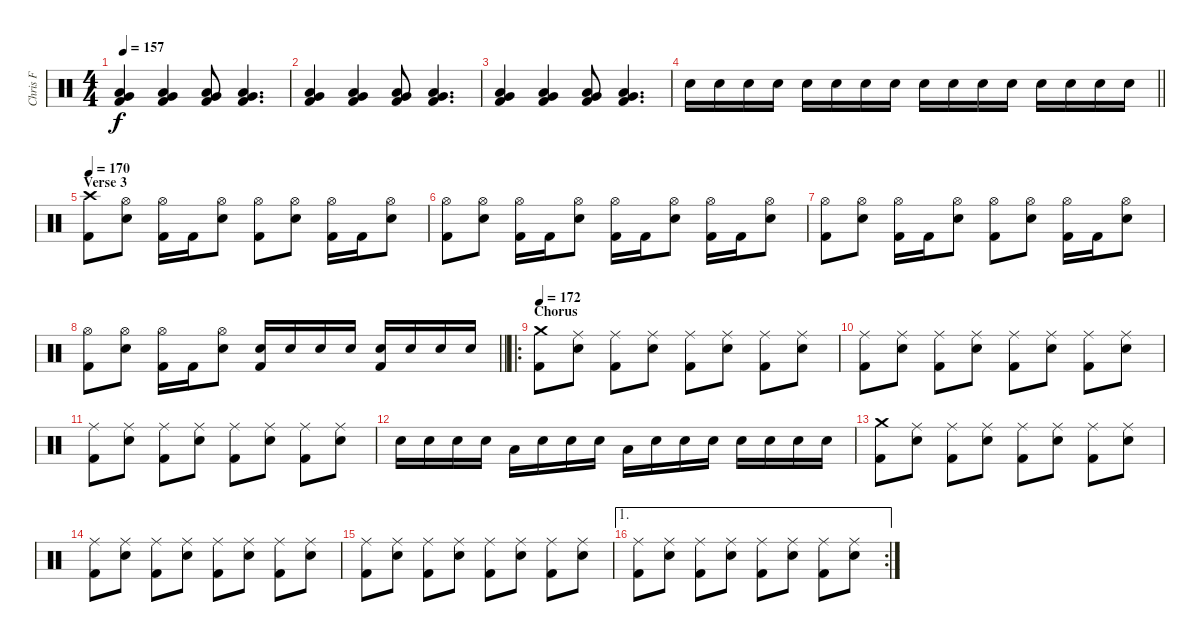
\track ("Chris F" "Chris F") {instrument percussion}
\staff {score}
\articulation defaults
\ts (4 4)
\tempo 157
\clef neutral
\ks c
("Very Low Tom (hit)" "Low Floor Tom (hit)" "Kick (hit) 2").4{dy f} ("Very Low Tom (hit)" "Low Floor Tom (hit)" "Kick (hit) 2").4 ("Very Low Tom (hit)" "Low Floor Tom (hit)" "Kick (hit) 2").8 ("Very Low Tom (hit)" "Low Floor Tom (hit)" "Kick (hit) 2").4{d} |
("Very Low Tom (hit)" "Low Floor Tom (hit)" "Kick (hit) 2").4 ("Very Low Tom (hit)" "Low Floor Tom (hit)" "Kick (hit) 2").4 ("Very Low Tom (hit)" "Low Floor Tom (hit)" "Kick (hit) 2").8 ("Very Low Tom (hit)" "Low Floor Tom (hit)" "Kick (hit) 2").4{d} |
("Very Low Tom (hit)" "Low Floor Tom (hit)" "Kick (hit) 2").4 ("Very Low Tom (hit)" "Low Floor Tom (hit)" "Kick (hit) 2").4 ("Very Low Tom (hit)" "Low Floor Tom (hit)" "Kick (hit) 2").8 ("Very Low Tom (hit)" "Low Floor Tom (hit)" "Kick (hit) 2").4{d} |
\barLineRight lightlight "Electric Snare (hit)".16 "Electric Snare (hit)".16 "Electric Snare (hit)".16 "Electric Snare (hit)".16 "Electric Snare (hit)".16 "Electric Snare (hit)".16 "Electric Snare (hit)".16 "Electric Snare (hit)".16 "Electric Snare (hit)".16 "Electric Snare (hit)".16 "Electric Snare (hit)".16 "Electric Snare (hit)".16 "Electric Snare (hit)".16 "Electric Snare (hit)".16 "Electric Snare (hit)".16 "Electric Snare (hit)".16
|
\section ("" "Verse 3")
\tempo 170
("Crash high (hit)" "Kick (hit) 2").8 ("Hi-Hat (open)" "Electric Snare (hit)").8 ("Hi-Hat (open)" "Kick (hit) 2").16 "Kick (hit) 2".16 ("Hi-Hat (open)" "Electric Snare (hit)").8 ("Hi-Hat (open)" "Kick (hit) 2").8 ("Hi-Hat (open)" "Electric Snare (hit)").8 ("Hi-Hat (open)" "Kick (hit) 2").16 "Kick (hit) 2".16 ("Hi-Hat (open)" "Electric Snare (hit)").8 |
("Hi-Hat (open)" "Kick (hit) 2").8 ("Hi-Hat (open)" "Electric Snare (hit)").8 ("Hi-Hat (open)" "Kick (hit) 2").16 "Kick (hit) 2".16 ("Hi-Hat (open)" "Electric Snare (hit)").8 ("Hi-Hat (open)" "Kick (hit) 2").16 "Kick (hit) 2".16 ("Hi-Hat (open)" "Electric Snare (hit)").8 ("Hi-Hat (open)" "Kick (hit) 2").16 "Kick (hit) 2".16 ("Hi-Hat (open)" "Electric Snare (hit)").8 |
("Hi-Hat (open)" "Kick (hit) 2").8 ("Hi-Hat (open)" "Electric Snare (hit)").8 ("Hi-Hat (open)" "Kick (hit) 2").16 "Kick (hit) 2".16 ("Hi-Hat (open)" "Electric Snare (hit)").8 ("Hi-Hat (open)" "Kick (hit) 2").8 ("Hi-Hat (open)" "Electric Snare (hit)").8 ("Hi-Hat (open)" "Kick (hit) 2").16 "Kick (hit) 2".16 ("Hi-Hat (open)" "Electric Snare (hit)").8 |
\barLineRight lightlight
("Hi-Hat (open)" "Kick (hit) 2").8 ("Hi-Hat (open)" "Electric Snare (hit)").8 ("Hi-Hat (open)" "Kick (hit) 2").16 "Kick (hit) 2".16 ("Hi-Hat (open)" "Electric Snare (hit)").8 ("Electric Snare (hit)" "Kick (hit) 2").16 "Electric Snare (hit)".16 "Electric Snare (hit)".16 "Electric Snare (hit)".16 ("Electric Snare (hit)" "Kick (hit) 2").16 "Electric Snare (hit)".16 "Electric Snare (hit)".16 "Electric Snare (hit)".16 |
\ro
\section ("" "Chorus")
\tempo 172
("Crash medium (hit)" "Kick (hit) 2").8 ("Ride (middle)" "Electric Snare (hit)").8 ("Ride (middle)" "Kick (hit) 2").8 ("Ride (middle)" "Electric Snare (hit)").8 ("Ride (middle)" "Kick (hit) 2").8 ("Ride (middle)" "Electric Snare (hit)").8 ("Ride (middle)" "Kick (hit) 2").8 ("Ride (middle)" "Electric Snare (hit)").8 |
("Ride (middle)" "Kick (hit) 2").8 ("Ride (middle)" "Electric Snare (hit)").8 ("Ride (middle)" "Kick (hit) 2").8 ("Ride (middle)" "Electric Snare (hit)").8 ("Ride (middle)" "Kick (hit) 2").8 ("Ride (middle)" "Electric Snare (hit)").8 ("Ride (middle)" "Kick (hit) 2").8 ("Ride (middle)" "Electric Snare (hit)").8 |
("Ride (middle)" "Kick (hit) 2").8 ("Ride (middle)" "Electric Snare (hit)").8 ("Ride (middle)" "Kick (hit) 2").8 ("Ride (middle)" "Electric Snare (hit)").8 ("Ride (middle)" "Kick (hit) 2").8 ("Ride (middle)" "Electric Snare (hit)").8 ("Ride (middle)" "Kick (hit) 2").8 ("Ride (middle)" "Electric Snare (hit)").8 |
"Electric Snare (hit)".16 "Electric Snare (hit)".16 "Electric Snare (hit)".16 "Electric Snare (hit)".16 "Low Tom (hit)".16 "Electric Snare (hit)".16 "Electric Snare (hit)".16 "Electric Snare (hit)".16 "Low Tom (hit)".16 "Electric Snare (hit)".16 "Electric Snare (hit)".16 "Electric Snare (hit)".16 "Electric Snare (hit)".16 "Electric Snare (hit)".16 "Electric Snare (hit)".16 "Electric Snare (hit)".16 |
("Crash medium (hit)" "Kick (hit) 2").8 ("Ride (middle)" "Electric Snare (hit)").8 ("Ride (middle)" "Kick (hit) 2").8 ("Ride (middle)" "Electric Snare (hit)").8 ("Ride (middle)" "Kick (hit) 2").8 ("Ride (middle)" "Electric Snare (hit)").8 ("Ride (middle)" "Kick (hit) 2").8 ("Ride (middle)" "Electric Snare (hit)").8 |
("Ride (middle)" "Kick (hit) 2").8 ("Ride (middle)" "Electric Snare (hit)").8 ("Ride (middle)" "Kick (hit) 2").8 ("Ride (middle)" "Electric Snare (hit)").8 ("Ride (middle)" "Kick (hit) 2").8 ("Ride (middle)" "Electric Snare (hit)").8 ("Ride (middle)" "Kick (hit) 2").8 ("Ride (middle)" "Electric Snare (hit)").8 |
("Ride (middle)" "Kick (hit) 2").8 ("Ride (middle)" "Electric Snare (hit)").8 ("Ride (middle)" "Kick (hit) 2").8 ("Ride (middle)" "Electric Snare (hit)").8 ("Ride (middle)" "Kick (hit) 2").8 ("Ride (middle)" "Electric Snare (hit)").8 ("Ride (middle)" "Kick (hit) 2").8 ("Ride (middle)" "Electric Snare (hit)").8 |
\ae 1
\rc 2
("Ride (middle)" "Kick (hit) 2").8 ("Ride (middle)" "Electric Snare (hit)").8 ("Ride (middle)" "Kick (hit) 2").8 ("Ride (middle)" "Electric Snare (hit)").8 ("Ride (middle)" "Kick (hit) 2").8 ("Ride (middle)" "Electric Snare (hit)").8 ("Ride (middle)" "Kick (hit) 2").8 ("Ride (middle)" "Electric Snare (hit)").8
